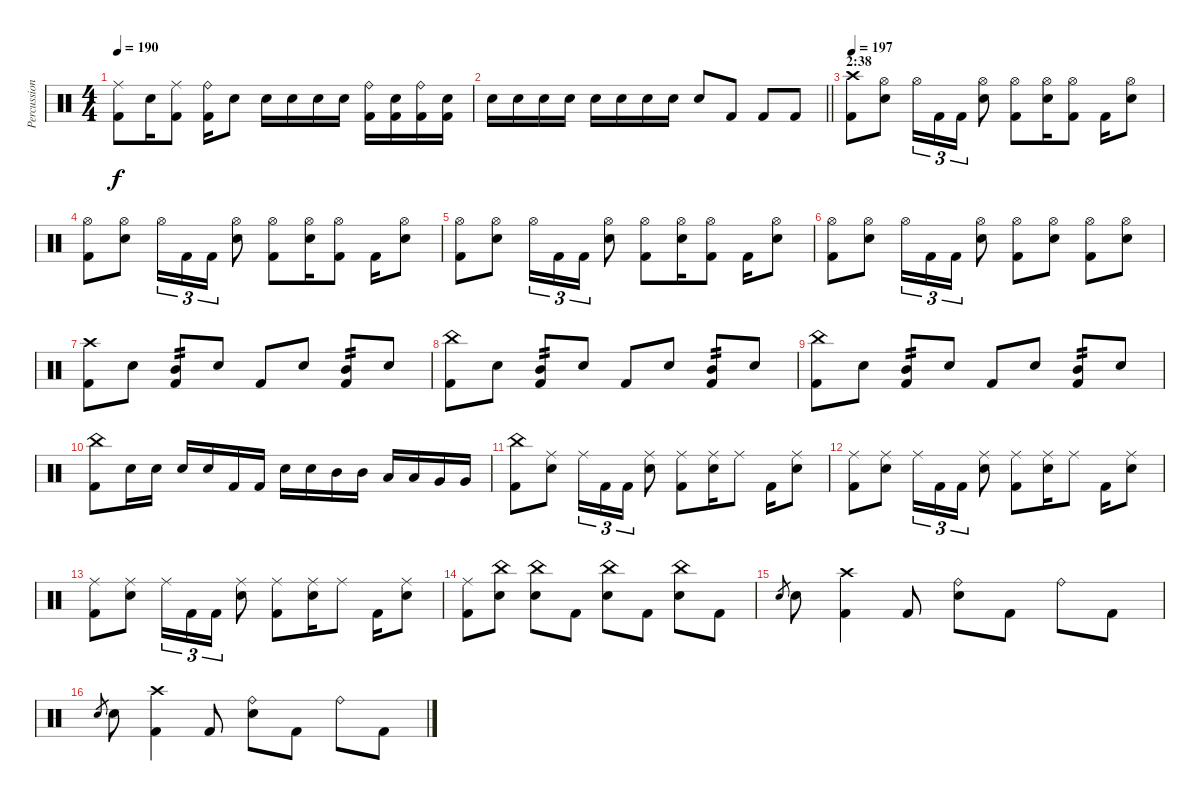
\track ("Percussion" "Percussion") {instrument percussion}
\staff {score}
\articulation defaults
\ts (4 4)
\tempo 190
\clef neutral
\ks c
("Ride (middle)" "Kick (hit) 2").8{dy f} "Electric Snare (hit)".16 ("Ride (middle)" "Kick (hit) 2").8 ("Kick (hit) 2" "Ride (bell)").16 "Electric Snare (hit)".8 "Electric Snare (hit)".16 "Electric Snare (hit)".16 "Electric Snare (hit)".16 "Electric Snare (hit)".16 ("Ride (bell)" "Kick (hit) 2").16 ("Electric Snare (hit)" "Kick (hit) 2").16 ("Ride (bell)" "Kick (hit) 2").16 ("Electric Snare (hit)" "Kick (hit) 2").16 |
\barLineRight lightlight "Electric Snare (hit)".16 "Electric Snare (hit)".16 "Electric Snare (hit)".16 "Electric Snare (hit)".16 "Electric Snare (hit)".16 "Electric Snare (hit)".16 "Electric Snare (hit)".16 "Electric Snare (hit)".16 "Electric Snare (hit)".8 "Kick (hit) 2".8 "Kick (hit) 2".8 "Kick (hit) 2".8
|
\section ("" "2:38")
\tempo 197
("Crash high (hit)" "Kick (hit) 2").8 ("Electric Snare (hit)" "Hi-Hat (open)").8 "Hi-Hat (open)".16{tu (3 2)} "Kick (hit) 2".16{tu (3 2)} "Kick (hit) 2".16{tu (3 2)} ("Hi-Hat (open)" "Electric Snare (hit)").8 ("Hi-Hat (open)" "Kick (hit) 2").8 ("Hi-Hat (open)" "Electric Snare (hit)").16 ("Hi-Hat (open)" "Kick (hit) 2").8 "Kick (hit) 2".16 ("Hi-Hat (open)" "Electric Snare (hit)").8 |
("Hi-Hat (open)" "Kick (hit) 2").8 ("Electric Snare (hit)" "Hi-Hat (open)").8 "Hi-Hat (open)".16{tu (3 2)} "Kick (hit) 2".16{tu (3 2)} "Kick (hit) 2".16{tu (3 2)} ("Hi-Hat (open)" "Electric Snare (hit)").8 ("Hi-Hat (open)" "Kick (hit) 2").8 ("Hi-Hat (open)" "Electric Snare (hit)").16 ("Hi-Hat (open)" "Kick (hit) 2").8 "Kick (hit) 2".16 ("Hi-Hat (open)" "Electric Snare (hit)").8 |
("Hi-Hat (open)" "Kick (hit) 2").8 ("Electric Snare (hit)" "Hi-Hat (open)").8 "Hi-Hat (open)".16{tu (3 2)} "Kick (hit) 2".16{tu (3 2)} "Kick (hit) 2".16{tu (3 2)} ("Hi-Hat (open)" "Electric Snare (hit)").8 ("Hi-Hat (open)" "Kick (hit) 2").8 ("Hi-Hat (open)" "Electric Snare (hit)").16 ("Hi-Hat (open)" "Kick (hit) 2").8 "Kick (hit) 2".16 ("Hi-Hat (open)" "Electric Snare (hit)").8 |
("Hi-Hat (open)" "Kick (hit) 2").8 ("Electric Snare (hit)" "Hi-Hat (open)").8 "Hi-Hat (open)".16{tu (3 2)} "Kick (hit) 2".16{tu (3 2)} "Kick (hit) 2".16{tu (3 2)} ("Hi-Hat (open)" "Electric Snare (hit)").8 ("Hi-Hat (open)" "Kick (hit) 2").8 ("Hi-Hat (open)" "Electric Snare (hit)").8 ("Hi-Hat (open)" "Kick (hit) 2").8 ("Hi-Hat (open)" "Electric Snare (hit)").8 |
("Crash high (hit)" "Kick (hit) 2").8 "Electric Snare (hit)".8 ("Kick (hit) 2" "Mid Tom (hit)").8{tp 2} "Electric Snare (hit)".8 "Kick (hit) 2".8 "Electric Snare (hit)".8 ("Kick (hit) 2" "Mid Tom (hit)").8{tp 2} "Electric Snare (hit)".8 |
("China (hit)" "Kick (hit) 2").8 "Electric Snare (hit)".8 ("Kick (hit) 2" "Mid Tom (hit)").8{tp 2} "Electric Snare (hit)".8 "Kick (hit) 2".8 "Electric Snare (hit)".8 ("Kick (hit) 2" "Mid Tom (hit)").8{tp 2} "Electric Snare (hit)".8 |
("China (hit)" "Kick (hit) 2").8 "Electric Snare (hit)".8 ("Kick (hit) 2" "Mid Tom (hit)").8{tp 2} "Electric Snare (hit)".8 "Kick (hit) 2".8 "Electric Snare (hit)".8 ("Kick (hit) 2" "Mid Tom (hit)").8{tp 2} "Electric Snare (hit)".8 |
("China (hit)" "Kick (hit) 2").8 "Electric Snare (hit)".16 "Electric Snare (hit)".16 "Electric Snare (hit)".16 "Electric Snare (hit)".16 "Kick (hit) 2".16 "Kick (hit) 2".16 "Electric Snare (hit)".16 "Electric Snare (hit)".16 "Mid Tom (hit)".16 "Mid Tom (hit)".16 "Low Tom (hit)".16 "Low Tom (hit)".16 "Very Low Tom (hit)".16 "Very Low Tom (hit)".16 |
("China (hit)" "Kick (hit) 2").8 ("Electric Snare (hit)" "Ride (middle)").8 "Ride (middle)".16{tu (3 2)} "Kick (hit) 2".16{tu (3 2)} "Kick (hit) 2".16{tu (3 2)} ("Ride (middle)" "Electric Snare (hit)").8 ("Ride (middle)" "Kick (hit) 2").8 ("Ride (middle)" "Electric Snare (hit)").16 "Ride (middle)".8 "Kick (hit) 2".16 ("Ride (middle)" "Electric Snare (hit)").8 |
("Ride (middle)" "Kick (hit) 2").8 ("Electric Snare (hit)" "Ride (middle)").8 "Ride (middle)".16{tu (3 2)} "Kick (hit) 2".16{tu (3 2)} "Kick (hit) 2".16{tu (3 2)} ("Ride (middle)" "Electric Snare (hit)").8 ("Ride (middle)" "Kick (hit) 2").8 ("Ride (middle)" "Electric Snare (hit)").16 "Ride (middle)".8 "Kick (hit) 2".16 ("Ride (middle)" "Electric Snare (hit)").8 |
("Ride (middle)" "Kick (hit) 2").8 ("Electric Snare (hit)" "Ride (middle)").8 "Ride (middle)".16{tu (3 2)} "Kick (hit) 2".16{tu (3 2)} "Kick (hit) 2".16{tu (3 2)} ("Ride (middle)" "Electric Snare (hit)").8 ("Ride (middle)" "Kick (hit) 2").8 ("Ride (middle)" "Electric Snare (hit)").16 "Ride (middle)".8 "Kick (hit) 2".16 ("Ride (middle)" "Electric Snare (hit)").8 |
("Ride (middle)" "Kick (hit) 2").8 ("China (hit)" "Electric Snare (hit)").8 ("China (hit)" "Electric Snare (hit)").8 "Kick (hit) 2".8 ("China (hit)" "Electric Snare (hit)").8 "Kick (hit) 2".8 ("China (hit)" "Electric Snare (hit)").8 "Kick (hit) 2".8 |
"Electric Snare (hit)".8{gr} "Electric Snare (hit)".8 ("Crash high (hit)" "Kick (hit) 2").4 "Kick (hit) 2".8 ("Electric Snare (hit)" "Ride (bell)").8 "Kick (hit) 2".8 "Ride (bell)".8 "Kick (hit) 2".8 |
"Electric Snare (hit)".8{gr} "Electric Snare (hit)".8 ("Crash high (hit)" "Kick (hit) 2").4 "Kick (hit) 2".8 ("Electric Snare (hit)" "Ride (bell)").8 "Kick (hit) 2".8 "Ride (bell)".8 "Kick (hit) 2".8
